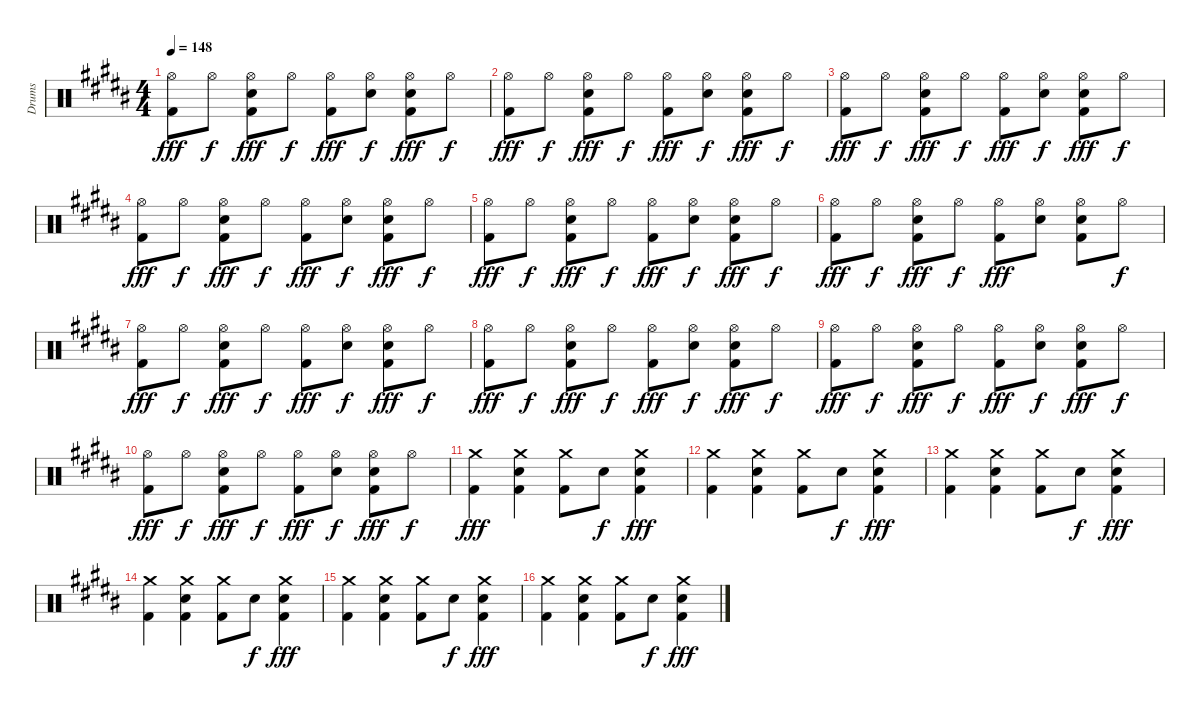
\track ("Drums" "Drums") {instrument percussion}
\staff {score}
\articulation defaults
\ts (4 4)
\tempo 148
\clef neutral
\ks b
("Hi-Hat (open)" "Kick (hit) 2").8{dy fff} "Hi-Hat (open)".8{dy f} ("Hi-Hat (open)" "Snare (hit) 2" "Kick (hit) 2").8{dy fff} "Hi-Hat (open)".8{dy f} ("Hi-Hat (open)" "Kick (hit) 2").8{dy fff} ("Hi-Hat (open)" "Electric Snare (hit)").8{dy f} ("Hi-Hat (open)" "Snare (hit) 2" "Kick (hit) 2").8{dy fff} "Hi-Hat (open)".8{dy f} |
("Hi-Hat (open)" "Kick (hit) 2").8{dy fff} "Hi-Hat (open)".8{dy f} ("Hi-Hat (open)" "Snare (hit) 2" "Kick (hit) 2").8{dy fff} "Hi-Hat (open)".8{dy f} ("Hi-Hat (open)" "Kick (hit) 2").8{dy fff} ("Hi-Hat (open)" "Electric Snare (hit)").8{dy f} ("Hi-Hat (open)" "Snare (hit) 2" "Kick (hit) 2").8{dy fff} "Hi-Hat (open)".8{dy f} |
("Hi-Hat (open)" "Kick (hit) 2").8{dy fff} "Hi-Hat (open)".8{dy f} ("Hi-Hat (open)" "Snare (hit) 2" "Kick (hit) 2").8{dy fff} "Hi-Hat (open)".8{dy f} ("Hi-Hat (open)" "Kick (hit) 2").8{dy fff} ("Hi-Hat (open)" "Electric Snare (hit)").8{dy f} ("Hi-Hat (open)" "Snare (hit) 2" "Kick (hit) 2").8{dy fff} "Hi-Hat (open)".8{dy f} |
("Hi-Hat (open)" "Kick (hit) 2").8{dy fff} "Hi-Hat (open)".8{dy f} ("Hi-Hat (open)" "Snare (hit) 2" "Kick (hit) 2").8{dy fff} "Hi-Hat (open)".8{dy f} ("Hi-Hat (open)" "Kick (hit) 2").8{dy fff} ("Hi-Hat (open)" "Electric Snare (hit)").8{dy f} ("Hi-Hat (open)" "Snare (hit) 2" "Kick (hit) 2").8{dy fff} "Hi-Hat (open)".8{dy f} |
("Hi-Hat (open)" "Kick (hit) 2").8{dy fff} "Hi-Hat (open)".8{dy f} ("Hi-Hat (open)" "Snare (hit) 2" "Kick (hit) 2").8{dy fff} "Hi-Hat (open)".8{dy f} ("Hi-Hat (open)" "Kick (hit) 2").8{dy fff} ("Hi-Hat (open)" "Electric Snare (hit)").8{dy f} ("Hi-Hat (open)" "Snare (hit) 2" "Kick (hit) 2").8{dy fff} "Hi-Hat (open)".8{dy f} |
("Hi-Hat (open)" "Kick (hit) 2").8{dy fff} "Hi-Hat (open)".8{dy f} ("Hi-Hat (open)" "Snare (hit) 2" "Kick (hit) 2").8{dy fff} "Hi-Hat (open)".8{dy f} ("Hi-Hat (open)" "Kick (hit) 2").8{dy fff} ("Hi-Hat (open)" "Snare (hit) 2").8 ("Hi-Hat (open)" "Snare (hit) 2" "Kick (hit) 2").8 "Hi-Hat (open)".8{dy f} |
("Hi-Hat (open)" "Kick (hit) 2").8{dy fff} "Hi-Hat (open)".8{dy f} ("Hi-Hat (open)" "Snare (hit) 2" "Kick (hit) 2").8{dy fff} "Hi-Hat (open)".8{dy f} ("Hi-Hat (open)" "Kick (hit) 2").8{dy fff} ("Hi-Hat (open)" "Electric Snare (hit)").8{dy f} ("Hi-Hat (open)" "Snare (hit) 2" "Kick (hit) 2").8{dy fff} "Hi-Hat (open)".8{dy f} |
("Hi-Hat (open)" "Kick (hit) 2").8{dy fff} "Hi-Hat (open)".8{dy f} ("Hi-Hat (open)" "Snare (hit) 2" "Kick (hit) 2").8{dy fff} "Hi-Hat (open)".8{dy f} ("Hi-Hat (open)" "Kick (hit) 2").8{dy fff} ("Hi-Hat (open)" "Electric Snare (hit)").8{dy f} ("Hi-Hat (open)" "Snare (hit) 2" "Kick (hit) 2").8{dy fff} "Hi-Hat (open)".8{dy f} |
("Hi-Hat (open)" "Kick (hit) 2").8{dy fff} "Hi-Hat (open)".8{dy f} ("Hi-Hat (open)" "Snare (hit) 2" "Kick (hit) 2").8{dy fff} "Hi-Hat (open)".8{dy f} ("Hi-Hat (open)" "Kick (hit) 2").8{dy fff} ("Hi-Hat (open)" "Electric Snare (hit)").8{dy f} ("Hi-Hat (open)" "Snare (hit) 2" "Kick (hit) 2").8{dy fff} "Hi-Hat (open)".8{dy f} |
("Hi-Hat (open)" "Kick (hit) 2").8{dy fff} "Hi-Hat (open)".8{dy f} ("Hi-Hat (open)" "Snare (hit) 2" "Kick (hit) 2").8{dy fff} "Hi-Hat (open)".8{dy f} ("Hi-Hat (open)" "Kick (hit) 2").8{dy fff} ("Hi-Hat (open)" "Electric Snare (hit)").8{dy f} ("Hi-Hat (open)" "Snare (hit) 2" "Kick (hit) 2").8{dy fff} "Hi-Hat (open)".8{dy f} |
("Crash medium (hit)" "Kick (hit) 2").4{dy fff} ("Crash medium (hit)" "Snare (hit) 2" "Kick (hit) 2").4 ("Crash medium (hit)" "Kick (hit) 2").8 "Electric Snare (hit)".8{dy f} ("Crash medium (hit)" "Snare (hit) 2" "Kick (hit) 2").4{dy fff} |
("Crash medium (hit)" "Kick (hit) 2").4 ("Crash medium (hit)" "Snare (hit) 2" "Kick (hit) 2").4 ("Crash medium (hit)" "Kick (hit) 2").8 "Electric Snare (hit)".8{dy f} ("Crash medium (hit)" "Snare (hit) 2" "Kick (hit) 2").4{dy fff} |
("Crash medium (hit)" "Kick (hit) 2").4 ("Crash medium (hit)" "Snare (hit) 2" "Kick (hit) 2").4 ("Crash medium (hit)" "Kick (hit) 2").8 "Electric Snare (hit)".8{dy f} ("Crash medium (hit)" "Snare (hit) 2" "Kick (hit) 2").4{dy fff} |
("Crash medium (hit)" "Kick (hit) 2").4 ("Crash medium (hit)" "Snare (hit) 2" "Kick (hit) 2").4 ("Crash medium (hit)" "Kick (hit) 2").8 "Electric Snare (hit)".8{dy f} ("Crash medium (hit)" "Snare (hit) 2" "Kick (hit) 2").4{dy fff} |
("Crash medium (hit)" "Kick (hit) 2").4 ("Crash medium (hit)" "Snare (hit) 2" "Kick (hit) 2").4 ("Crash medium (hit)" "Kick (hit) 2").8 "Electric Snare (hit)".8{dy f} ("Crash medium (hit)" "Snare (hit) 2" "Kick (hit) 2").4{dy fff} |
("Crash medium (hit)" "Kick (hit) 2").4 ("Crash medium (hit)" "Snare (hit) 2" "Kick (hit) 2").4 ("Crash medium (hit)" "Kick (hit) 2").8 "Electric Snare (hit)".8{dy f} ("Crash medium (hit)" "Snare (hit) 2" "Kick (hit) 2").4{dy fff}
